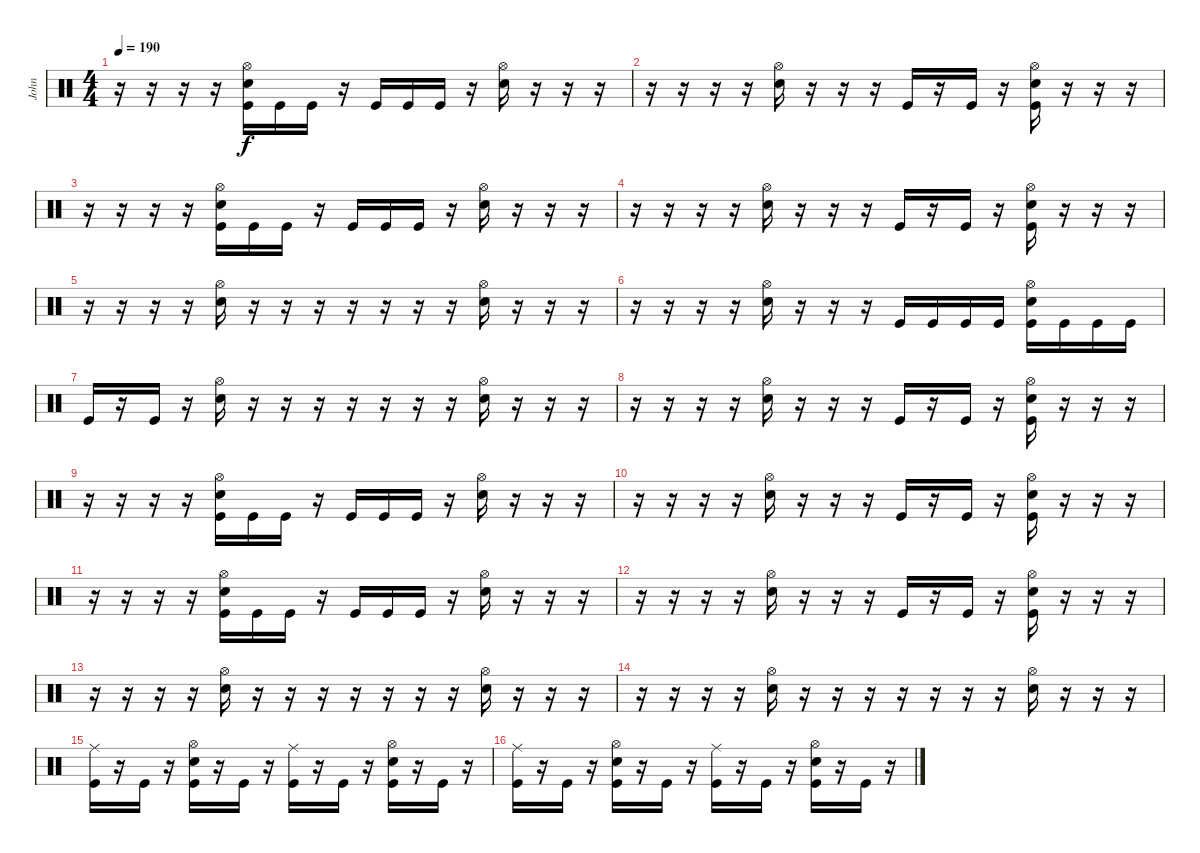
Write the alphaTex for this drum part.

\track ("John" "John") {instrument percussion}
\staff {score}
\articulation defaults
\ts (4 4)
\tempo 190
\clef neutral
\ks c
r.16{dy f} r.16 r.16 r.16 ("Kick (hit)" "Snare (hit) 2" "Hi-Hat (open)").16 "Kick (hit)".16 "Kick (hit)".16 r.16 "Kick (hit)".16 "Kick (hit)".16 "Kick (hit)".16 r.16 ("Snare (hit) 2" "Hi-Hat (open)").16 r.16 r.16 r.16 |
r.16 r.16 r.16 r.16 ("Snare (hit) 2" "Hi-Hat (open)").16 r.16 r.16 r.16 "Kick (hit)".16 r.16 "Kick (hit)".16 r.16 ("Kick (hit)" "Snare (hit) 2" "Hi-Hat (open)").16 r.16 r.16 r.16 |
r.16 r.16 r.16 r.16 ("Kick (hit)" "Snare (hit) 2" "Hi-Hat (open)").16 "Kick (hit)".16 "Kick (hit)".16 r.16 "Kick (hit)".16 "Kick (hit)".16 "Kick (hit)".16 r.16 ("Snare (hit) 2" "Hi-Hat (open)").16 r.16 r.16 r.16 |
r.16 r.16 r.16 r.16 ("Snare (hit) 2" "Hi-Hat (open)").16 r.16 r.16 r.16 "Kick (hit)".16 r.16 "Kick (hit)".16 r.16 ("Kick (hit)" "Snare (hit) 2" "Hi-Hat (open)").16 r.16 r.16 r.16 |
r.16 r.16 r.16 r.16 ("Snare (hit) 2" "Hi-Hat (open)").16 r.16 r.16 r.16 r.16 r.16 r.16 r.16 ("Snare (hit) 2" "Hi-Hat (open)").16 r.16 r.16 r.16 |
r.16 r.16 r.16 r.16 ("Snare (hit) 2" "Hi-Hat (open)").16 r.16 r.16 r.16 "Kick (hit)".16 "Kick (hit)".16 "Kick (hit)".16 "Kick (hit)".16 ("Kick (hit)" "Snare (hit) 2" "Hi-Hat (open)").16 "Kick (hit)".16 "Kick (hit)".16 "Kick (hit)".16 |
"Kick (hit)".16 r.16 "Kick (hit)".16 r.16 ("Snare (hit) 2" "Hi-Hat (open)").16 r.16 r.16 r.16 r.16 r.16 r.16 r.16 ("Snare (hit) 2" "Hi-Hat (open)").16 r.16 r.16 r.16 |
r.16 r.16 r.16 r.16 ("Snare (hit) 2" "Hi-Hat (open)").16 r.16 r.16 r.16 "Kick (hit)".16 r.16 "Kick (hit)".16 r.16 ("Kick (hit)" "Snare (hit) 2" "Hi-Hat (open)").16 r.16 r.16 r.16 |
r.16 r.16 r.16 r.16 ("Kick (hit)" "Snare (hit) 2" "Hi-Hat (open)").16 "Kick (hit)".16 "Kick (hit)".16 r.16 "Kick (hit)".16 "Kick (hit)".16 "Kick (hit)".16 r.16 ("Snare (hit) 2" "Hi-Hat (open)").16 r.16 r.16 r.16 |
r.16 r.16 r.16 r.16 ("Snare (hit) 2" "Hi-Hat (open)").16 r.16 r.16 r.16 "Kick (hit)".16 r.16 "Kick (hit)".16 r.16 ("Kick (hit)" "Snare (hit) 2" "Hi-Hat (open)").16 r.16 r.16 r.16 |
r.16 r.16 r.16 r.16 ("Kick (hit)" "Snare (hit) 2" "Hi-Hat (open)").16 "Kick (hit)".16 "Kick (hit)".16 r.16 "Kick (hit)".16 "Kick (hit)".16 "Kick (hit)".16 r.16 ("Snare (hit) 2" "Hi-Hat (open)").16 r.16 r.16 r.16 |
r.16 r.16 r.16 r.16 ("Snare (hit) 2" "Hi-Hat (open)").16 r.16 r.16 r.16 "Kick (hit)".16 r.16 "Kick (hit)".16 r.16 ("Kick (hit)" "Snare (hit) 2" "Hi-Hat (open)").16 r.16 r.16 r.16 |
r.16 r.16 r.16 r.16 ("Snare (hit) 2" "Hi-Hat (open)").16 r.16 r.16 r.16 r.16 r.16 r.16 r.16 ("Snare (hit) 2" "Hi-Hat (open)").16 r.16 r.16 r.16 |
r.16 r.16 r.16 r.16 ("Snare (hit) 2" "Hi-Hat (open)").16 r.16 r.16 r.16 r.16 r.16 r.16 r.16 ("Snare (hit) 2" "Hi-Hat (open)").16 r.16 r.16 r.16 |
("Kick (hit)" "Ride (middle)").16 r.16 "Kick (hit)".16 r.16 ("Kick (hit)" "Snare (hit) 2" "Hi-Hat (open)").16 r.16 "Kick (hit)".16 r.16 ("Kick (hit)" "Ride (middle)").16 r.16 "Kick (hit)".16 r.16 ("Kick (hit)" "Snare (hit) 2" "Hi-Hat (open)").16 r.16 "Kick (hit)".16 r.16 |
("Kick (hit)" "Ride (middle)").16 r.16 "Kick (hit)".16 r.16 ("Kick (hit)" "Snare (hit) 2" "Hi-Hat (open)").16 r.16 "Kick (hit)".16 r.16 ("Kick (hit)" "Ride (middle)").16 r.16 "Kick (hit)".16 r.16 ("Kick (hit)" "Snare (hit) 2" "Hi-Hat (open)").16 r.16 "Kick (hit)".16 r.16
